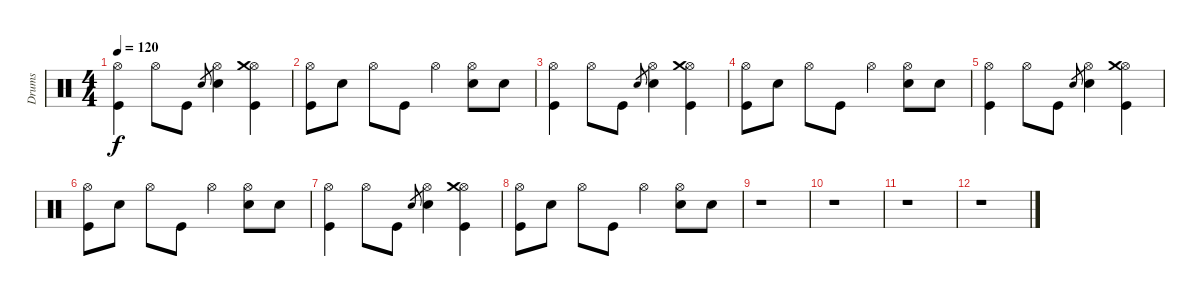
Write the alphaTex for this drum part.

\track ("Drums" "Drums") {instrument percussion}
\staff {score}
\articulation defaults
\ts (4 4)
\tempo 120
\clef neutral
\ks c
("Hi-Hat (open)" "Kick (hit)").4{dy f} "Hi-Hat (open)".8 "Kick (hit)".8 "Electric Snare (hit)".8{gr} ("Hi-Hat (open)" "Electric Snare (hit)").4 ("Hi-Hat (open)" "Crash medium (hit)" "Kick (hit)").4 |
("Hi-Hat (open)" "Kick (hit)").8 "Electric Snare (hit)".8 "Hi-Hat (open)".8 "Kick (hit)".8 "Hi-Hat (open)".4 ("Hi-Hat (open)" "Electric Snare (hit)").8 "Electric Snare (hit)".8 |
("Hi-Hat (open)" "Kick (hit)").4 "Hi-Hat (open)".8 "Kick (hit)".8 "Electric Snare (hit)".8{gr} ("Hi-Hat (open)" "Electric Snare (hit)").4 ("Hi-Hat (open)" "Crash medium (hit)" "Kick (hit)").4 |
("Hi-Hat (open)" "Kick (hit)").8 "Electric Snare (hit)".8 "Hi-Hat (open)".8 "Kick (hit)".8 "Hi-Hat (open)".4 ("Hi-Hat (open)" "Electric Snare (hit)").8 "Electric Snare (hit)".8 |
("Hi-Hat (open)" "Kick (hit)").4 "Hi-Hat (open)".8 "Kick (hit)".8 "Electric Snare (hit)".8{gr} ("Hi-Hat (open)" "Electric Snare (hit)").4 ("Hi-Hat (open)" "Crash medium (hit)" "Kick (hit)").4 |
("Hi-Hat (open)" "Kick (hit)").8 "Electric Snare (hit)".8 "Hi-Hat (open)".8 "Kick (hit)".8 "Hi-Hat (open)".4 ("Hi-Hat (open)" "Electric Snare (hit)").8 "Electric Snare (hit)".8 |
("Hi-Hat (open)" "Kick (hit)").4 "Hi-Hat (open)".8 "Kick (hit)".8 "Electric Snare (hit)".8{gr} ("Hi-Hat (open)" "Electric Snare (hit)").4 ("Hi-Hat (open)" "Crash medium (hit)" "Kick (hit)").4 |
("Hi-Hat (open)" "Kick (hit)").8 "Electric Snare (hit)".8 "Hi-Hat (open)".8 "Kick (hit)".8 "Hi-Hat (open)".4 ("Hi-Hat (open)" "Electric Snare (hit)").8 "Electric Snare (hit)".8 |
r.1 |
r.1 |
r.1 |
r.1
